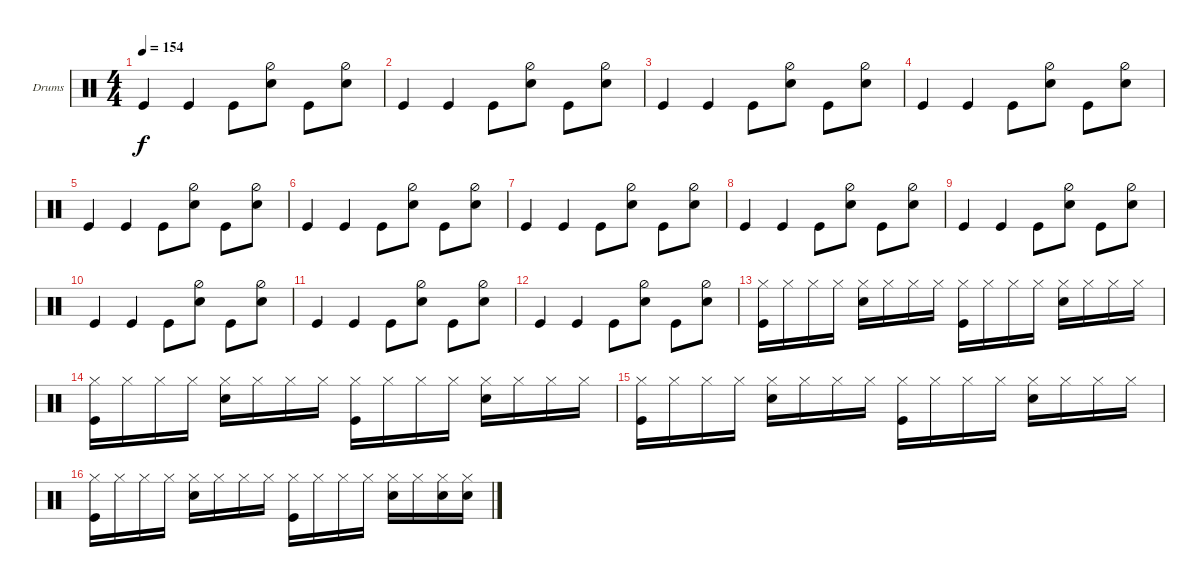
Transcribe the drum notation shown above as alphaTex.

\bracketExtendMode groupsimilarinstruments
\firstSystemTrackNameOrientation horizontal
\otherSystemsTrackNameOrientation horizontal
\track ("Drums" "Drums") {instrument percussion}
\staff {score}
\articulation defaults
\ts (4 4)
\tempo 154
\clef neutral
\ks c "Kick (hit)".4{dy f} "Kick (hit)".4 "Kick (hit)".8
("Snare (hit) 2" "Hi-Hat (half)").8 "Kick (hit)".8 ("Snare (hit) 2" "Hi-Hat (half)").8 |
"Kick (hit)".4 "Kick (hit)".4 "Kick (hit)".8 ("Snare (hit) 2" "Hi-Hat (half)").8 "Kick (hit)".8 ("Snare (hit) 2" "Hi-Hat (half)").8 |
"Kick (hit)".4 "Kick (hit)".4 "Kick (hit)".8 ("Snare (hit) 2" "Hi-Hat (half)").8 "Kick (hit)".8 ("Snare (hit) 2" "Hi-Hat (half)").8 |
"Kick (hit)".4 "Kick (hit)".4 "Kick (hit)".8 ("Snare (hit) 2" "Hi-Hat (half)").8 "Kick (hit)".8 ("Snare (hit) 2" "Hi-Hat (half)").8 |
"Kick (hit)".4 "Kick (hit)".4 "Kick (hit)".8 ("Snare (hit) 2" "Hi-Hat (half)").8 "Kick (hit)".8 ("Snare (hit) 2" "Hi-Hat (half)").8 |
"Kick (hit)".4 "Kick (hit)".4 "Kick (hit)".8 ("Snare (hit) 2" "Hi-Hat (half)").8 "Kick (hit)".8 ("Snare (hit) 2" "Hi-Hat (half)").8 |
"Kick (hit)".4 "Kick (hit)".4 "Kick (hit)".8 ("Snare (hit) 2" "Hi-Hat (half)").8 "Kick (hit)".8 ("Snare (hit) 2" "Hi-Hat (half)").8 |
"Kick (hit)".4 "Kick (hit)".4 "Kick (hit)".8 ("Snare (hit) 2" "Hi-Hat (half)").8 "Kick (hit)".8 ("Snare (hit) 2" "Hi-Hat (half)").8 |
"Kick (hit)".4 "Kick (hit)".4 "Kick (hit)".8 ("Snare (hit) 2" "Hi-Hat (half)").8 "Kick (hit)".8 ("Snare (hit) 2" "Hi-Hat (half)").8 |
"Kick (hit)".4 "Kick (hit)".4 "Kick (hit)".8 ("Snare (hit) 2" "Hi-Hat (half)").8 "Kick (hit)".8 ("Snare (hit) 2" "Hi-Hat (half)").8 |
"Kick (hit)".4 "Kick (hit)".4 "Kick (hit)".8 ("Snare (hit) 2" "Hi-Hat (half)").8 "Kick (hit)".8 ("Snare (hit) 2" "Hi-Hat (half)").8 |
"Kick (hit)".4 "Kick (hit)".4 "Kick (hit)".8 ("Snare (hit) 2" "Hi-Hat (half)").8 "Kick (hit)".8 ("Snare (hit) 2" "Hi-Hat (half)").8 |
("Kick (hit)" "Hi-Hat (closed)").16 "Hi-Hat (closed)".16 "Hi-Hat (closed)".16 "Hi-Hat (closed)".16 ("Snare (hit) 2" "Hi-Hat (closed)").16 "Hi-Hat (closed)".16 "Hi-Hat (closed)".16 "Hi-Hat (closed)".16 ("Kick (hit)" "Hi-Hat (closed)").16 "Hi-Hat (closed)".16 "Hi-Hat (closed)".16 "Hi-Hat (closed)".16 ("Snare (hit) 2" "Hi-Hat (closed)").16 "Hi-Hat (closed)".16 "Hi-Hat (closed)".16 "Hi-Hat (closed)".16 |
("Kick (hit)" "Hi-Hat (closed)").16 "Hi-Hat (closed)".16 "Hi-Hat (closed)".16 "Hi-Hat (closed)".16 ("Snare (hit) 2" "Hi-Hat (closed)").16 "Hi-Hat (closed)".16 "Hi-Hat (closed)".16 "Hi-Hat (closed)".16 ("Kick (hit)" "Hi-Hat (closed)").16 "Hi-Hat (closed)".16 "Hi-Hat (closed)".16 "Hi-Hat (closed)".16 ("Snare (hit) 2" "Hi-Hat (closed)").16 "Hi-Hat (closed)".16 "Hi-Hat (closed)".16 "Hi-Hat (closed)".16 |
("Kick (hit)" "Hi-Hat (closed)").16 "Hi-Hat (closed)".16 "Hi-Hat (closed)".16 "Hi-Hat (closed)".16 ("Snare (hit) 2" "Hi-Hat (closed)").16 "Hi-Hat (closed)".16 "Hi-Hat (closed)".16 "Hi-Hat (closed)".16 ("Kick (hit)" "Hi-Hat (closed)").16 "Hi-Hat (closed)".16 "Hi-Hat (closed)".16 "Hi-Hat (closed)".16 ("Snare (hit) 2" "Hi-Hat (closed)").16 "Hi-Hat (closed)".16 "Hi-Hat (closed)".16 "Hi-Hat (closed)".16 |
("Kick (hit)" "Hi-Hat (closed)").16 "Hi-Hat (closed)".16 "Hi-Hat (closed)".16 "Hi-Hat (closed)".16 ("Snare (hit) 2" "Hi-Hat (closed)").16 "Hi-Hat (closed)".16 "Hi-Hat (closed)".16 "Hi-Hat (closed)".16 ("Kick (hit)" "Hi-Hat (closed)").16 "Hi-Hat (closed)".16 "Hi-Hat (closed)".16 "Hi-Hat (closed)".16 ("Snare (hit) 2" "Hi-Hat (closed)").16 "Hi-Hat (closed)".16 ("Snare (hit) 2" "Hi-Hat (closed)").16 ("Snare (hit) 2" "Hi-Hat (closed)").16
